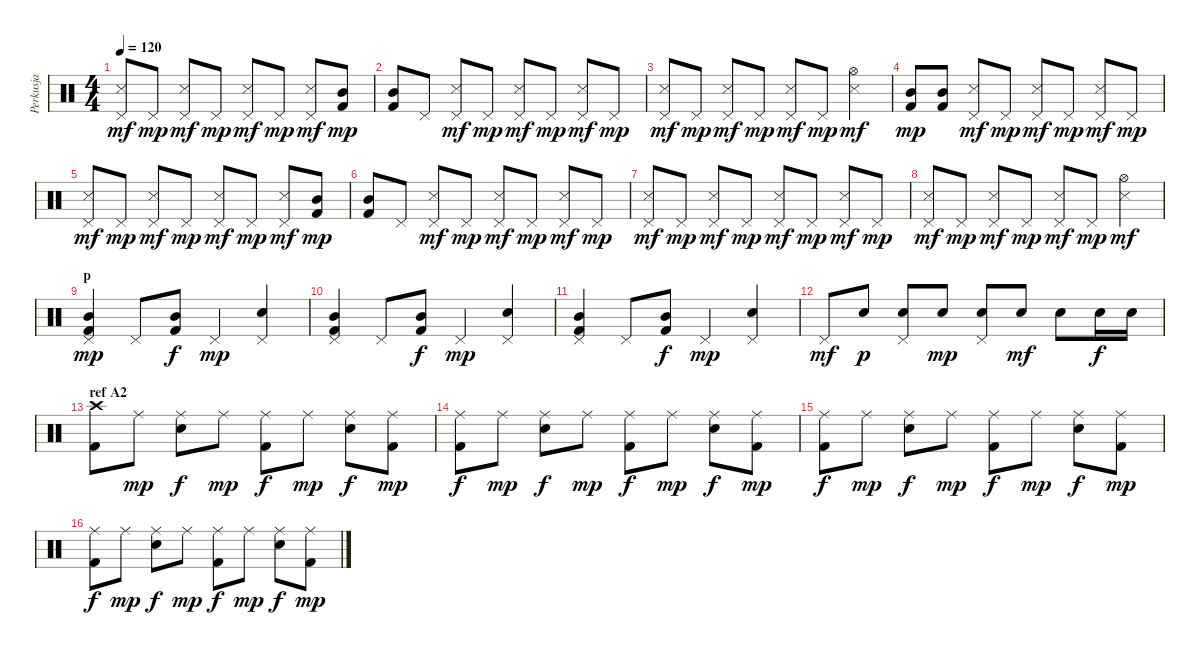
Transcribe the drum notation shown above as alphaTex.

\track ("Perkusja" "Perkusja") {instrument percussion}
\staff {score}
\articulation defaults
\ts (4 4)
\tempo 120
\clef neutral
\ks c
("Snare (side stick) 3" "Pedal Hi-Hat (hit)").8{dy mf} "Pedal Hi-Hat (hit)".8{dy mp} ("Snare (side stick) 3" "Pedal Hi-Hat (hit)").8{dy mf} "Pedal Hi-Hat (hit)".8{dy mp} ("Snare (side stick) 3" "Pedal Hi-Hat (hit)").8{dy mf} "Pedal Hi-Hat (hit)".8{dy mp} ("Snare (side stick) 3" "Pedal Hi-Hat (hit)").8{dy mf} ("Mid Tom (hit)" "Kick (hit) 2").8{dy mp} |
("Mid Tom (hit)" "Kick (hit) 2").8 "Pedal Hi-Hat (hit)".8 ("Snare (side stick) 3" "Pedal Hi-Hat (hit)").8{dy mf} "Pedal Hi-Hat (hit)".8{dy mp} ("Snare (side stick) 3" "Pedal Hi-Hat (hit)").8{dy mf} "Pedal Hi-Hat (hit)".8{dy mp} ("Snare (side stick) 3" "Pedal Hi-Hat (hit)").8{dy mf} "Pedal Hi-Hat (hit)".8{dy mp} |
("Snare (side stick) 3" "Pedal Hi-Hat (hit)").8{dy mf} "Pedal Hi-Hat (hit)".8{dy mp} ("Snare (side stick) 3" "Pedal Hi-Hat (hit)").8{dy mf} "Pedal Hi-Hat (hit)".8{dy mp} ("Snare (side stick) 3" "Pedal Hi-Hat (hit)").8{dy mf} "Pedal Hi-Hat (hit)".8{dy mp} ("Snare (side stick) 3" "Hi-Hat (open)").4{dy mf} |
("Mid Tom (hit)" "Kick (hit) 2").8{dy mp} ("Mid Tom (hit)" "Kick (hit) 2").8 ("Snare (side stick) 3" "Pedal Hi-Hat (hit)").8{dy mf} "Pedal Hi-Hat (hit)".8{dy mp} ("Snare (side stick) 3" "Pedal Hi-Hat (hit)").8{dy mf} "Pedal Hi-Hat (hit)".8{dy mp} ("Snare (side stick) 3" "Pedal Hi-Hat (hit)").8{dy mf} "Pedal Hi-Hat (hit)".8{dy mp} |
("Snare (side stick) 3" "Pedal Hi-Hat (hit)").8{dy mf} "Pedal Hi-Hat (hit)".8{dy mp} ("Snare (side stick) 3" "Pedal Hi-Hat (hit)").8{dy mf} "Pedal Hi-Hat (hit)".8{dy mp} ("Snare (side stick) 3" "Pedal Hi-Hat (hit)").8{dy mf} "Pedal Hi-Hat (hit)".8{dy mp} ("Snare (side stick) 3" "Pedal Hi-Hat (hit)").8{dy mf} ("Mid Tom (hit)" "Kick (hit) 2").8{dy mp} |
("Mid Tom (hit)" "Kick (hit) 2").8 "Pedal Hi-Hat (hit)".8 ("Snare (side stick) 3" "Pedal Hi-Hat (hit)").8{dy mf} "Pedal Hi-Hat (hit)".8{dy mp} ("Snare (side stick) 3" "Pedal Hi-Hat (hit)").8{dy mf} "Pedal Hi-Hat (hit)".8{dy mp} ("Snare (side stick) 3" "Pedal Hi-Hat (hit)").8{dy mf} "Pedal Hi-Hat (hit)".8{dy mp} |
("Snare (side stick) 3" "Pedal Hi-Hat (hit)").8{dy mf} "Pedal Hi-Hat (hit)".8{dy mp} ("Snare (side stick) 3" "Pedal Hi-Hat (hit)").8{dy mf} "Pedal Hi-Hat (hit)".8{dy mp} ("Snare (side stick) 3" "Pedal Hi-Hat (hit)").8{dy mf} "Pedal Hi-Hat (hit)".8{dy mp} ("Snare (side stick) 3" "Pedal Hi-Hat (hit)").8{dy mf} "Pedal Hi-Hat (hit)".8{dy mp} |
("Snare (side stick) 3" "Pedal Hi-Hat (hit)").8{dy mf} "Pedal Hi-Hat (hit)".8{dy mp} ("Snare (side stick) 3" "Pedal Hi-Hat (hit)").8{dy mf} "Pedal Hi-Hat (hit)".8{dy mp} ("Snare (side stick) 3" "Pedal Hi-Hat (hit)").8{dy mf} "Pedal Hi-Hat (hit)".8{dy mp} ("Snare (side stick) 3" "Hi-Hat (open)").4{dy mf} |
\section ("" "p")
("Pedal Hi-Hat (hit)" "Mid Tom (hit)" "Kick (hit) 2").4{dy mp} "Pedal Hi-Hat (hit)".8 ("Mid Tom (hit)" "Kick (hit) 2").8{dy f} "Pedal Hi-Hat (hit)".4{dy mp} ("Pedal Hi-Hat (hit)" "Snare (hit) 2").4 |
("Pedal Hi-Hat (hit)" "Mid Tom (hit)" "Kick (hit) 2").4 "Pedal Hi-Hat (hit)".8 ("Mid Tom (hit)" "Kick (hit) 2").8{dy f} "Pedal Hi-Hat (hit)".4{dy mp} ("Pedal Hi-Hat (hit)" "Snare (hit) 2").4 |
("Pedal Hi-Hat (hit)" "Mid Tom (hit)" "Kick (hit) 2").4 "Pedal Hi-Hat (hit)".8 ("Mid Tom (hit)" "Kick (hit) 2").8{dy f} "Pedal Hi-Hat (hit)".4{dy mp} ("Pedal Hi-Hat (hit)" "Snare (hit) 2").4 |
"Pedal Hi-Hat (hit)".8{dy mf} "Snare (hit) 2".8{dy p} ("Pedal Hi-Hat (hit)" "Snare (hit) 2").8 "Snare (hit) 2".8{dy mp} ("Pedal Hi-Hat (hit)" "Snare (hit) 2").8 "Snare (hit) 2".8{dy mf} "Snare (hit) 2".8 "Snare (hit) 2".16{dy f} "Snare (hit) 2".16 |
\section ("" "ref A2")
("Crash high (hit)" "Kick (hit) 2").8 "Ride (middle)".8{dy mp} ("Ride (middle)" "Snare (hit) 2").8{dy f} "Ride (middle)".8{dy mp} ("Ride (middle)" "Kick (hit) 2").8{dy f} "Ride (middle)".8{dy mp} ("Ride (middle)" "Snare (hit) 2").8{dy f} ("Ride (middle)" "Kick (hit) 2").8{dy mp} |
("Ride (middle)" "Kick (hit) 2").8{dy f} "Ride (middle)".8{dy mp} ("Ride (middle)" "Snare (hit) 2").8{dy f} "Ride (middle)".8{dy mp} ("Ride (middle)" "Kick (hit) 2").8{dy f} "Ride (middle)".8{dy mp} ("Ride (middle)" "Snare (hit) 2").8{dy f} ("Ride (middle)" "Kick (hit) 2").8{dy mp} |
("Ride (middle)" "Kick (hit) 2").8{dy f} "Ride (middle)".8{dy mp} ("Ride (middle)" "Snare (hit) 2").8{dy f} "Ride (middle)".8{dy mp} ("Ride (middle)" "Kick (hit) 2").8{dy f} "Ride (middle)".8{dy mp} ("Ride (middle)" "Snare (hit) 2").8{dy f} ("Ride (middle)" "Kick (hit) 2").8{dy mp} |
("Ride (middle)" "Kick (hit) 2").8{dy f} "Ride (middle)".8{dy mp} ("Ride (middle)" "Snare (hit) 2").8{dy f} "Ride (middle)".8{dy mp} ("Ride (middle)" "Kick (hit) 2").8{dy f} "Ride (middle)".8{dy mp} ("Ride (middle)" "Snare (hit) 2").8{dy f} ("Ride (middle)" "Kick (hit) 2").8{dy mp}
